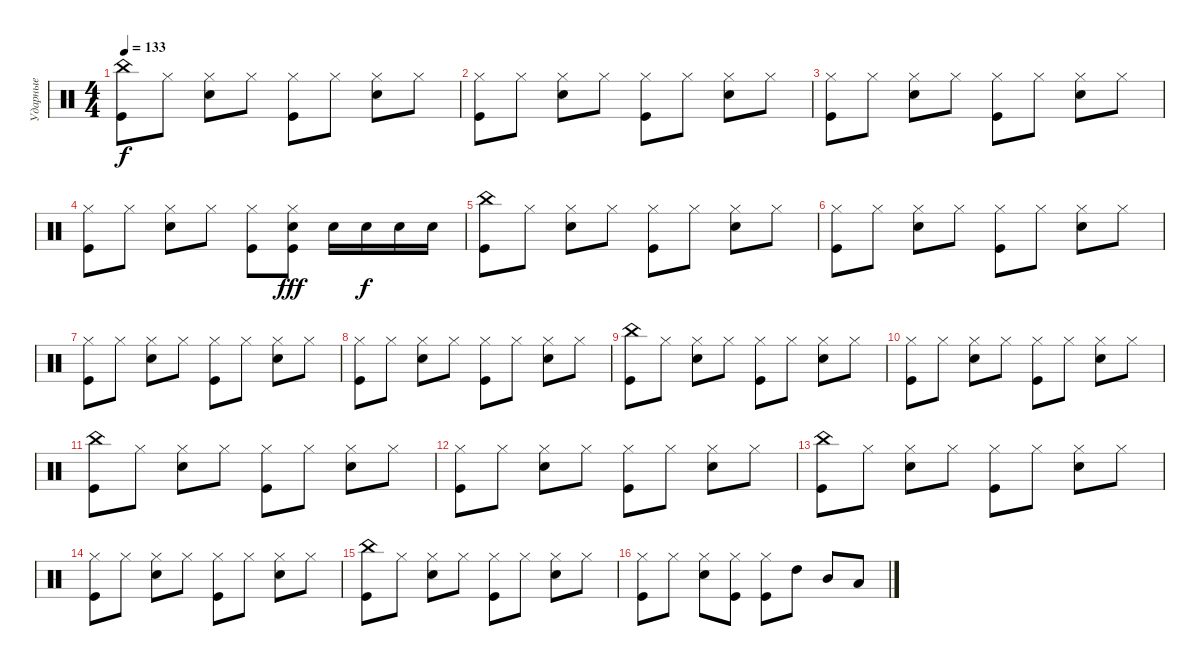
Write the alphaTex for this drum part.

\track ("Ударные" "Ударные") {instrument percussion}
\staff {score}
\articulation defaults
\ts (4 4)
\tempo 133
\clef neutral
\ks c
("China (hit)" "Kick (hit)").8{dy f} "Hi-Hat (closed)".8 ("Hi-Hat (closed)" "Electric Snare (hit)").8 "Hi-Hat (closed)".8 ("Hi-Hat (closed)" "Kick (hit)").8 "Hi-Hat (closed)".8 ("Hi-Hat (closed)" "Electric Snare (hit)").8 "Hi-Hat (closed)".8 |
("Hi-Hat (closed)" "Kick (hit)").8 "Hi-Hat (closed)".8 ("Hi-Hat (closed)" "Electric Snare (hit)").8 "Hi-Hat (closed)".8 ("Hi-Hat (closed)" "Kick (hit)").8 "Hi-Hat (closed)".8 ("Hi-Hat (closed)" "Electric Snare (hit)").8 "Hi-Hat (closed)".8 |
("Hi-Hat (closed)" "Kick (hit)").8 "Hi-Hat (closed)".8 ("Hi-Hat (closed)" "Electric Snare (hit)").8 "Hi-Hat (closed)".8 ("Hi-Hat (closed)" "Kick (hit)").8 "Hi-Hat (closed)".8 ("Hi-Hat (closed)" "Electric Snare (hit)").8 "Hi-Hat (closed)".8 |
("Hi-Hat (closed)" "Kick (hit)").8 "Hi-Hat (closed)".8 ("Hi-Hat (closed)" "Electric Snare (hit)").8 "Hi-Hat (closed)".8 ("Hi-Hat (closed)" "Kick (hit)").8 ("Electric Snare (hit)" "Hi-Hat (closed)" "Kick (hit)").8{dy fff} "Electric Snare (hit)".16 "Electric Snare (hit)".16{dy f} "Electric Snare (hit)".16 "Electric Snare (hit)".16 |
("China (hit)" "Kick (hit)").8 "Hi-Hat (closed)".8 ("Hi-Hat (closed)" "Electric Snare (hit)").8 "Hi-Hat (closed)".8 ("Hi-Hat (closed)" "Kick (hit)").8 "Hi-Hat (closed)".8 ("Hi-Hat (closed)" "Electric Snare (hit)").8 "Hi-Hat (closed)".8 |
("Hi-Hat (closed)" "Kick (hit)").8 "Hi-Hat (closed)".8 ("Hi-Hat (closed)" "Electric Snare (hit)").8 "Hi-Hat (closed)".8 ("Hi-Hat (closed)" "Kick (hit)").8 "Hi-Hat (closed)".8 ("Hi-Hat (closed)" "Electric Snare (hit)").8 "Hi-Hat (closed)".8 |
("Hi-Hat (closed)" "Kick (hit)").8 "Hi-Hat (closed)".8 ("Hi-Hat (closed)" "Electric Snare (hit)").8 "Hi-Hat (closed)".8 ("Hi-Hat (closed)" "Kick (hit)").8 "Hi-Hat (closed)".8 ("Hi-Hat (closed)" "Electric Snare (hit)").8 "Hi-Hat (closed)".8 |
("Hi-Hat (closed)" "Kick (hit)").8 "Hi-Hat (closed)".8 ("Hi-Hat (closed)" "Electric Snare (hit)").8 "Hi-Hat (closed)".8 ("Hi-Hat (closed)" "Kick (hit)").8 "Hi-Hat (closed)".8 ("Hi-Hat (closed)" "Electric Snare (hit)").8 "Hi-Hat (closed)".8 |
("China (hit)" "Kick (hit)").8 "Hi-Hat (closed)".8 ("Hi-Hat (closed)" "Electric Snare (hit)").8 "Hi-Hat (closed)".8 ("Hi-Hat (closed)" "Kick (hit)").8 "Hi-Hat (closed)".8 ("Hi-Hat (closed)" "Electric Snare (hit)").8 "Hi-Hat (closed)".8 |
("Hi-Hat (closed)" "Kick (hit)").8 "Hi-Hat (closed)".8 ("Hi-Hat (closed)" "Electric Snare (hit)").8 "Hi-Hat (closed)".8 ("Hi-Hat (closed)" "Kick (hit)").8 "Hi-Hat (closed)".8 ("Hi-Hat (closed)" "Electric Snare (hit)").8 "Hi-Hat (closed)".8 |
("China (hit)" "Kick (hit)").8 "Hi-Hat (closed)".8 ("Hi-Hat (closed)" "Electric Snare (hit)").8 "Hi-Hat (closed)".8 ("Hi-Hat (closed)" "Kick (hit)").8 "Hi-Hat (closed)".8 ("Hi-Hat (closed)" "Electric Snare (hit)").8 "Hi-Hat (closed)".8 |
("Hi-Hat (closed)" "Kick (hit)").8 "Hi-Hat (closed)".8 ("Hi-Hat (closed)" "Electric Snare (hit)").8 "Hi-Hat (closed)".8 ("Hi-Hat (closed)" "Kick (hit)").8 "Hi-Hat (closed)".8 ("Hi-Hat (closed)" "Electric Snare (hit)").8 "Hi-Hat (closed)".8 |
("China (hit)" "Kick (hit)").8 "Hi-Hat (closed)".8 ("Hi-Hat (closed)" "Electric Snare (hit)").8 "Hi-Hat (closed)".8 ("Hi-Hat (closed)" "Kick (hit)").8 "Hi-Hat (closed)".8 ("Hi-Hat (closed)" "Electric Snare (hit)").8 "Hi-Hat (closed)".8 |
("Hi-Hat (closed)" "Kick (hit)").8 "Hi-Hat (closed)".8 ("Hi-Hat (closed)" "Electric Snare (hit)").8 "Hi-Hat (closed)".8 ("Hi-Hat (closed)" "Kick (hit)").8 "Hi-Hat (closed)".8 ("Hi-Hat (closed)" "Electric Snare (hit)").8 "Hi-Hat (closed)".8 |
("China (hit)" "Kick (hit)").8 "Hi-Hat (closed)".8 ("Hi-Hat (closed)" "Electric Snare (hit)").8 "Hi-Hat (closed)".8 ("Hi-Hat (closed)" "Kick (hit)").8 "Hi-Hat (closed)".8 ("Hi-Hat (closed)" "Electric Snare (hit)").8 "Hi-Hat (closed)".8 |
("Hi-Hat (closed)" "Kick (hit)").8 "Hi-Hat (closed)".8 ("Hi-Hat (closed)" "Electric Snare (hit)").8 ("Hi-Hat (closed)" "Kick (hit)").8 ("Hi-Hat (closed)" "Kick (hit)").8 "High Tom (hit)".8 "Mid Tom (hit)".8 "Low Tom (hit)".8
